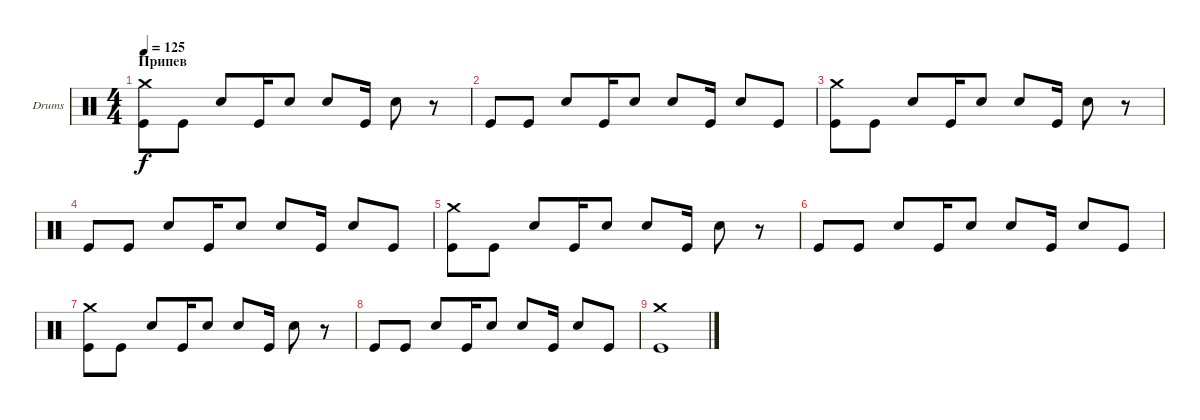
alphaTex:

\defaultSystemsLayout 4
\bracketExtendMode groupsimilarinstruments
\firstSystemTrackNameOrientation horizontal
\otherSystemsTrackNameOrientation horizontal
\track ("Drumkit" "Drums") {instrument percussion}
\staff {score}
\articulation defaults
\ts (4 4)
\section ("" "Припев")
\tempo 125
\clef neutral
\ks c
("Crash medium (hit)" "Kick (hit)").8{dy f} "Kick (hit)".8 "Snare (hit) 2".8 "Kick (hit)".16 "Snare (hit) 2".8 "Snare (hit) 2".8 "Kick (hit)".16 "Snare (hit) 2".8 r.8 |
"Kick (hit)".8 "Kick (hit)".8 "Snare (hit) 2".8 "Kick (hit)".16 "Snare (hit) 2".8 "Snare (hit) 2".8 "Kick (hit)".16 "Snare (hit) 2".8 "Kick (hit)".8 |
("Crash medium (hit)" "Kick (hit)").8 "Kick (hit)".8 "Snare (hit) 2".8 "Kick (hit)".16 "Snare (hit) 2".8 "Snare (hit) 2".8 "Kick (hit)".16 "Snare (hit) 2".8 r.8 |
"Kick (hit)".8 "Kick (hit)".8 "Snare (hit) 2".8 "Kick (hit)".16 "Snare (hit) 2".8 "Snare (hit) 2".8 "Kick (hit)".16 "Snare (hit) 2".8 "Kick (hit)".8 |
("Crash medium (hit)" "Kick (hit)").8 "Kick (hit)".8 "Snare (hit) 2".8 "Kick (hit)".16 "Snare (hit) 2".8 "Snare (hit) 2".8 "Kick (hit)".16 "Snare (hit) 2".8 r.8 |
"Kick (hit)".8 "Kick (hit)".8 "Snare (hit) 2".8 "Kick (hit)".16 "Snare (hit) 2".8 "Snare (hit) 2".8 "Kick (hit)".16 "Snare (hit) 2".8 "Kick (hit)".8 |
("Crash medium (hit)" "Kick (hit)").8 "Kick (hit)".8 "Snare (hit) 2".8 "Kick (hit)".16 "Snare (hit) 2".8 "Snare (hit) 2".8 "Kick (hit)".16 "Snare (hit) 2".8 r.8 |
"Kick (hit)".8 "Kick (hit)".8 "Snare (hit) 2".8 "Kick (hit)".16 "Snare (hit) 2".8 "Snare (hit) 2".8 "Kick (hit)".16 "Snare (hit) 2".8 "Kick (hit)".8 |
("Crash medium (hit)" "Kick (hit)").1
